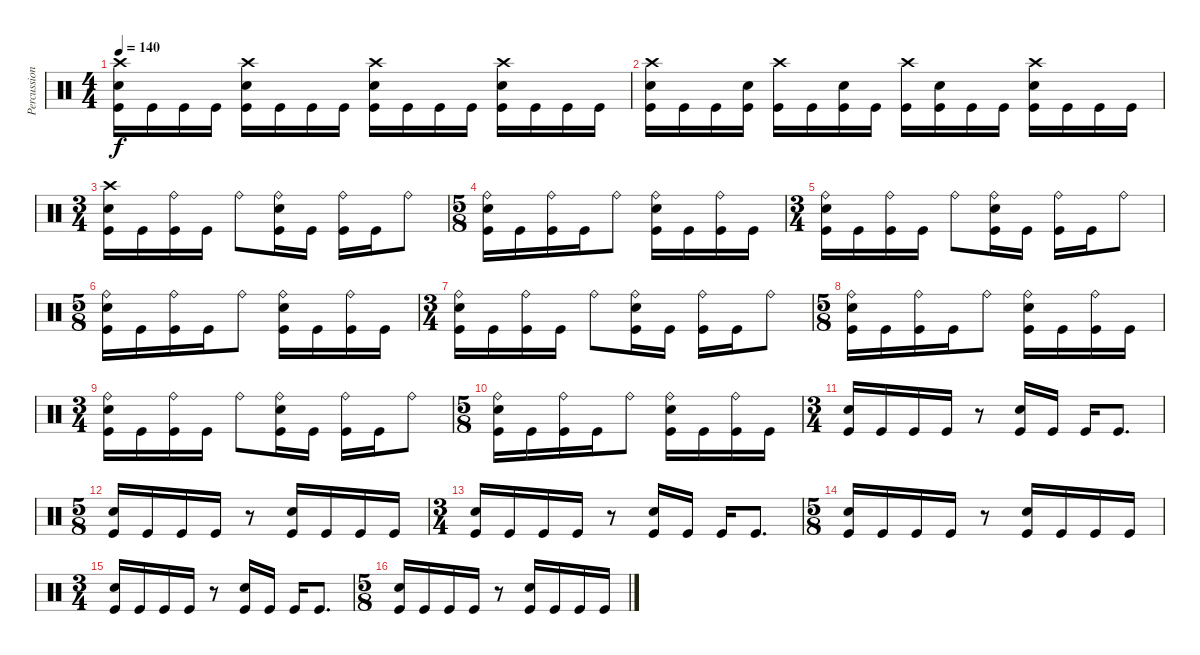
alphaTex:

\track ("Percussion" "Percussion") {instrument percussion}
\staff {score}
\articulation defaults
\ts (4 4)
\tempo 140
\clef neutral
\ks c
("Crash high (hit)" "Electric Snare (hit)" "Kick (hit)").16{dy f} "Kick (hit)".16 "Kick (hit)".16 "Kick (hit)".16 ("Crash high (hit)" "Electric Snare (hit)" "Kick (hit)").16 "Kick (hit)".16 "Kick (hit)".16 "Kick (hit)".16 ("Crash high (hit)" "Electric Snare (hit)" "Kick (hit)").16 "Kick (hit)".16 "Kick (hit)".16 "Kick (hit)".16 ("Crash high (hit)" "Electric Snare (hit)" "Kick (hit)").16 "Kick (hit)".16 "Kick (hit)".16 "Kick (hit)".16 |
("Crash high (hit)" "Electric Snare (hit)" "Kick (hit)").16 "Kick (hit)".16 "Kick (hit)".16 ("Electric Snare (hit)" "Kick (hit)").16 ("Crash high (hit)" "Kick (hit)").16 "Kick (hit)".16 ("Electric Snare (hit)" "Kick (hit)").16 "Kick (hit)".16 ("Crash high (hit)" "Kick (hit)").16 ("Electric Snare (hit)" "Kick (hit)").16 "Kick (hit)".16 "Kick (hit)".16 ("Crash high (hit)" "Electric Snare (hit)" "Kick (hit)").16 "Kick (hit)".16 "Kick (hit)".16 "Kick (hit)".16 |
\ts (3 4)
("Crash high (hit)" "Electric Snare (hit)" "Kick (hit)").16 "Kick (hit)".16 ("Ride (bell)" "Kick (hit)").16 "Kick (hit)".16 "Ride (bell)".8 ("Ride (bell)" "Electric Snare (hit)" "Kick (hit)").16 "Kick (hit)".16 ("Ride (bell)" "Kick (hit)").16 "Kick (hit)".16 "Ride (bell)".8 |
\ts (5 8)
("Ride (bell)" "Electric Snare (hit)" "Kick (hit)").16 "Kick (hit)".16 ("Ride (bell)" "Kick (hit)").16 "Kick (hit)".16 "Ride (bell)".8 ("Ride (bell)" "Electric Snare (hit)" "Kick (hit)").16 "Kick (hit)".16 ("Ride (bell)" "Kick (hit)").16 "Kick (hit)".16 |
\ts (3 4)
("Ride (bell)" "Electric Snare (hit)" "Kick (hit)").16 "Kick (hit)".16 ("Ride (bell)" "Kick (hit)").16 "Kick (hit)".16 "Ride (bell)".8 ("Ride (bell)" "Electric Snare (hit)" "Kick (hit)").16 "Kick (hit)".16 ("Ride (bell)" "Kick (hit)").16 "Kick (hit)".16 "Ride (bell)".8 |
\ts (5 8)
("Ride (bell)" "Electric Snare (hit)" "Kick (hit)").16 "Kick (hit)".16 ("Ride (bell)" "Kick (hit)").16 "Kick (hit)".16 "Ride (bell)".8 ("Ride (bell)" "Electric Snare (hit)" "Kick (hit)").16 "Kick (hit)".16 ("Ride (bell)" "Kick (hit)").16 "Kick (hit)".16 |
\ts (3 4)
("Ride (bell)" "Electric Snare (hit)" "Kick (hit)").16 "Kick (hit)".16 ("Ride (bell)" "Kick (hit)").16 "Kick (hit)".16 "Ride (bell)".8 ("Ride (bell)" "Electric Snare (hit)" "Kick (hit)").16 "Kick (hit)".16 ("Ride (bell)" "Kick (hit)").16 "Kick (hit)".16 "Ride (bell)".8 |
\ts (5 8)
("Ride (bell)" "Electric Snare (hit)" "Kick (hit)").16 "Kick (hit)".16 ("Ride (bell)" "Kick (hit)").16 "Kick (hit)".16 "Ride (bell)".8 ("Ride (bell)" "Electric Snare (hit)" "Kick (hit)").16 "Kick (hit)".16 ("Ride (bell)" "Kick (hit)").16 "Kick (hit)".16 |
\ts (3 4)
("Ride (bell)" "Electric Snare (hit)" "Kick (hit)").16 "Kick (hit)".16 ("Ride (bell)" "Kick (hit)").16 "Kick (hit)".16 "Ride (bell)".8 ("Ride (bell)" "Electric Snare (hit)" "Kick (hit)").16 "Kick (hit)".16 ("Ride (bell)" "Kick (hit)").16 "Kick (hit)".16 "Ride (bell)".8 |
\ts (5 8)
("Ride (bell)" "Electric Snare (hit)" "Kick (hit)").16 "Kick (hit)".16 ("Ride (bell)" "Kick (hit)").16 "Kick (hit)".16 "Ride (bell)".8 ("Ride (bell)" "Electric Snare (hit)" "Kick (hit)").16 "Kick (hit)".16 ("Ride (bell)" "Kick (hit)").16 "Kick (hit)".16 |
\ts (3 4)
("Electric Snare (hit)" "Kick (hit)").16 "Kick (hit)".16 "Kick (hit)".16 "Kick (hit)".16 r.8 ("Electric Snare (hit)" "Kick (hit)").16 "Kick (hit)".16 "Kick (hit)".16 "Kick (hit)".8{d} |
\ts (5 8)
("Electric Snare (hit)" "Kick (hit)").16 "Kick (hit)".16 "Kick (hit)".16 "Kick (hit)".16 r.8 ("Electric Snare (hit)" "Kick (hit)").16 "Kick (hit)".16 "Kick (hit)".16 "Kick (hit)".16 |
\ts (3 4)
("Electric Snare (hit)" "Kick (hit)").16 "Kick (hit)".16 "Kick (hit)".16 "Kick (hit)".16 r.8 ("Electric Snare (hit)" "Kick (hit)").16 "Kick (hit)".16 "Kick (hit)".16 "Kick (hit)".8{d} |
\ts (5 8)
("Electric Snare (hit)" "Kick (hit)").16 "Kick (hit)".16 "Kick (hit)".16 "Kick (hit)".16 r.8 ("Electric Snare (hit)" "Kick (hit)").16 "Kick (hit)".16 "Kick (hit)".16 "Kick (hit)".16 |
\ts (3 4)
("Electric Snare (hit)" "Kick (hit)").16 "Kick (hit)".16 "Kick (hit)".16 "Kick (hit)".16 r.8 ("Electric Snare (hit)" "Kick (hit)").16 "Kick (hit)".16 "Kick (hit)".16 "Kick (hit)".8{d} |
\ts (5 8)
("Electric Snare (hit)" "Kick (hit)").16 "Kick (hit)".16 "Kick (hit)".16 "Kick (hit)".16 r.8 ("Electric Snare (hit)" "Kick (hit)").16 "Kick (hit)".16 "Kick (hit)".16 "Kick (hit)".16
